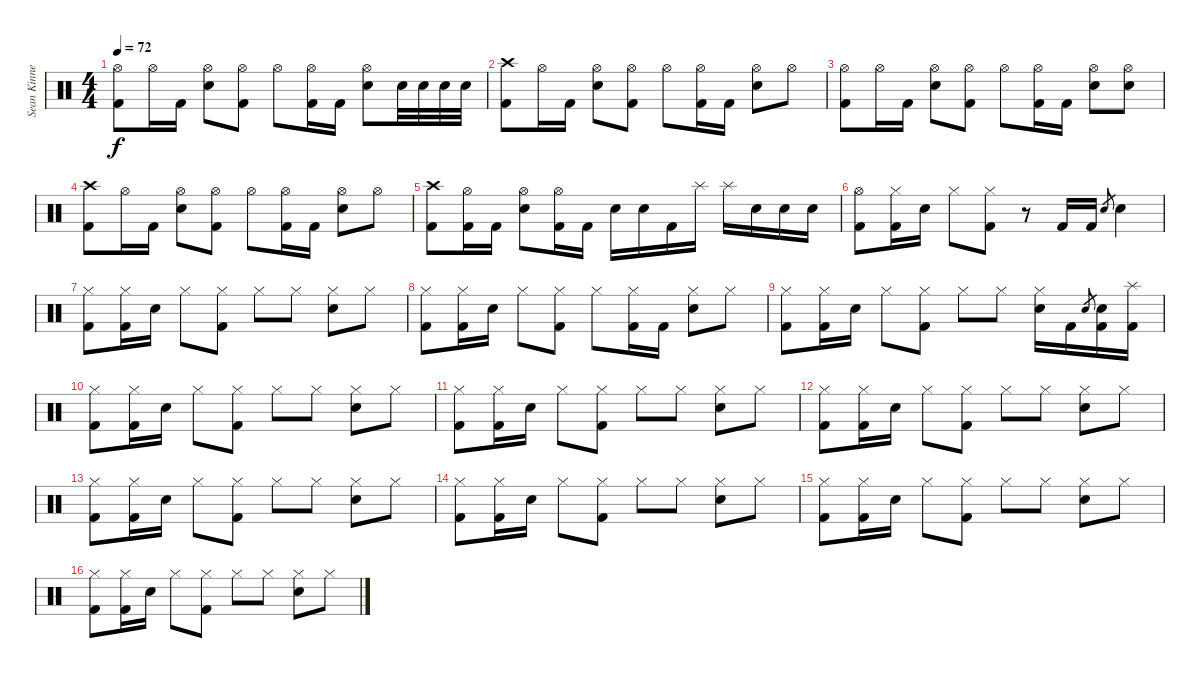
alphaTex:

\track ("Sean Kinney - Drums" "Sean Kinne") {instrument percussion}
\staff {score}
\articulation defaults
\ts (4 4)
\tempo 72
\clef neutral
\ks c
("Hi-Hat (open)" "Kick (hit) 2").8{dy f} "Hi-Hat (open)".16 "Kick (hit) 2".16 ("Hi-Hat (open)" "Electric Snare (hit)").8 ("Hi-Hat (open)" "Kick (hit) 2").8 "Hi-Hat (open)".8 ("Hi-Hat (open)" "Kick (hit) 2").16 "Kick (hit) 2".16 ("Hi-Hat (open)" "Electric Snare (hit)").8 "Electric Snare (hit)".32 "Electric Snare (hit)".32 "Electric Snare (hit)".32 "Electric Snare (hit)".32 |
("Crash high (hit)" "Kick (hit) 2").8 "Hi-Hat (open)".16 "Kick (hit) 2".16 ("Hi-Hat (open)" "Electric Snare (hit)").8 ("Hi-Hat (open)" "Kick (hit) 2").8 "Hi-Hat (open)".8 ("Hi-Hat (open)" "Kick (hit) 2").16 "Kick (hit) 2".16 ("Hi-Hat (open)" "Electric Snare (hit)").8 "Hi-Hat (open)".8 |
("Hi-Hat (open)" "Kick (hit) 2").8 "Hi-Hat (open)".16 "Kick (hit) 2".16 ("Hi-Hat (open)" "Electric Snare (hit)").8 ("Hi-Hat (open)" "Kick (hit) 2").8 "Hi-Hat (open)".8 ("Hi-Hat (open)" "Kick (hit) 2").16 "Kick (hit) 2".16 ("Hi-Hat (open)" "Electric Snare (hit)").8 ("Hi-Hat (open)" "Electric Snare (hit)").8 |
("Crash high (hit)" "Kick (hit) 2").8 "Hi-Hat (open)".16 "Kick (hit) 2".16 ("Hi-Hat (open)" "Electric Snare (hit)").8 ("Hi-Hat (open)" "Kick (hit) 2").8 "Hi-Hat (open)".8 ("Hi-Hat (open)" "Kick (hit) 2").16 "Kick (hit) 2".16 ("Hi-Hat (open)" "Electric Snare (hit)").8 "Hi-Hat (open)".8 |
("Crash high (hit)" "Kick (hit) 2").8 ("Hi-Hat (open)" "Kick (hit) 2").16 "Kick (hit) 2".16 ("Hi-Hat (open)" "Electric Snare (hit)").8 ("Hi-Hat (open)" "Kick (hit) 2").16 "Kick (hit) 2".16 "Electric Snare (hit)".16 "Electric Snare (hit)".16 "Kick (hit) 2".16 "Splash (hit)".16 "Splash (hit)".16 "Electric Snare (hit)".16 "Electric Snare (hit)".16 "Electric Snare (hit)".16 |
("Hi-Hat (open)" "Kick (hit) 2").8 ("Hi-Hat (closed)" "Kick (hit) 2").16 "Electric Snare (hit)".16 "Hi-Hat (closed)".8 ("Hi-Hat (closed)" "Kick (hit) 2").8 r.8 "Kick (hit) 2".16 "Kick (hit) 2".16 "Electric Snare (hit)"{sl}.8{gr} "Electric Snare (hit)".4 |
("Hi-Hat (closed)" "Kick (hit) 2").8 ("Hi-Hat (closed)" "Kick (hit) 2").16 "Electric Snare (hit)".16 "Hi-Hat (closed)".8 ("Hi-Hat (closed)" "Kick (hit) 2").8 "Hi-Hat (closed)".8 "Hi-Hat (closed)".8 ("Hi-Hat (closed)" "Electric Snare (hit)").8 "Hi-Hat (closed)".8 |
("Hi-Hat (closed)" "Kick (hit) 2").8 ("Hi-Hat (closed)" "Kick (hit) 2").16 "Electric Snare (hit)".16 "Hi-Hat (closed)".8 ("Hi-Hat (closed)" "Kick (hit) 2").8 "Hi-Hat (closed)".8 ("Hi-Hat (closed)" "Kick (hit) 2").16 "Kick (hit) 2".16 ("Hi-Hat (closed)" "Electric Snare (hit)").8 "Hi-Hat (closed)".8 |
("Hi-Hat (closed)" "Kick (hit) 2").8 ("Hi-Hat (closed)" "Kick (hit) 2").16 "Electric Snare (hit)".16 "Hi-Hat (closed)".8 ("Hi-Hat (closed)" "Kick (hit) 2").8 "Hi-Hat (closed)".8 "Hi-Hat (closed)".8 ("Hi-Hat (closed)" "Electric Snare (hit)").16 "Kick (hit) 2".16 "Electric Snare (hit)".8{gr} ("Electric Snare (hit)" "Kick (hit) 2").16 ("Splash (hit)" "Kick (hit) 2").16 |
("Hi-Hat (closed)" "Kick (hit) 2").8 ("Hi-Hat (closed)" "Kick (hit) 2").16 "Electric Snare (hit)".16 "Hi-Hat (closed)".8 ("Hi-Hat (closed)" "Kick (hit) 2").8 "Hi-Hat (closed)".8 "Hi-Hat (closed)".8 ("Hi-Hat (closed)" "Electric Snare (hit)").8 "Hi-Hat (closed)".8 |
("Hi-Hat (closed)" "Kick (hit) 2").8 ("Hi-Hat (closed)" "Kick (hit) 2").16 "Electric Snare (hit)".16 "Hi-Hat (closed)".8 ("Hi-Hat (closed)" "Kick (hit) 2").8 "Hi-Hat (closed)".8 "Hi-Hat (closed)".8 ("Hi-Hat (closed)" "Electric Snare (hit)").8 "Hi-Hat (closed)".8 |
("Hi-Hat (closed)" "Kick (hit) 2").8 ("Hi-Hat (closed)" "Kick (hit) 2").16 "Electric Snare (hit)".16 "Hi-Hat (closed)".8 ("Hi-Hat (closed)" "Kick (hit) 2").8 "Hi-Hat (closed)".8 "Hi-Hat (closed)".8 ("Hi-Hat (closed)" "Electric Snare (hit)").8 "Hi-Hat (closed)".8 |
("Hi-Hat (closed)" "Kick (hit) 2").8 ("Hi-Hat (closed)" "Kick (hit) 2").16 "Electric Snare (hit)".16 "Hi-Hat (closed)".8 ("Hi-Hat (closed)" "Kick (hit) 2").8 "Hi-Hat (closed)".8 "Hi-Hat (closed)".8 ("Hi-Hat (closed)" "Electric Snare (hit)").8 "Hi-Hat (closed)".8 |
("Hi-Hat (closed)" "Kick (hit) 2").8 ("Hi-Hat (closed)" "Kick (hit) 2").16 "Electric Snare (hit)".16 "Hi-Hat (closed)".8 ("Hi-Hat (closed)" "Kick (hit) 2").8 "Hi-Hat (closed)".8 "Hi-Hat (closed)".8 ("Hi-Hat (closed)" "Electric Snare (hit)").8 "Hi-Hat (closed)".8 |
("Hi-Hat (closed)" "Kick (hit) 2").8 ("Hi-Hat (closed)" "Kick (hit) 2").16 "Electric Snare (hit)".16 "Hi-Hat (closed)".8 ("Hi-Hat (closed)" "Kick (hit) 2").8 "Hi-Hat (closed)".8 "Hi-Hat (closed)".8 ("Hi-Hat (closed)" "Electric Snare (hit)").8 "Hi-Hat (closed)".8 |
("Hi-Hat (closed)" "Kick (hit) 2").8 ("Hi-Hat (closed)" "Kick (hit) 2").16 "Electric Snare (hit)".16 "Hi-Hat (closed)".8 ("Hi-Hat (closed)" "Kick (hit) 2").8 "Hi-Hat (closed)".8 "Hi-Hat (closed)".8 ("Hi-Hat (closed)" "Electric Snare (hit)").8 "Hi-Hat (closed)".8
